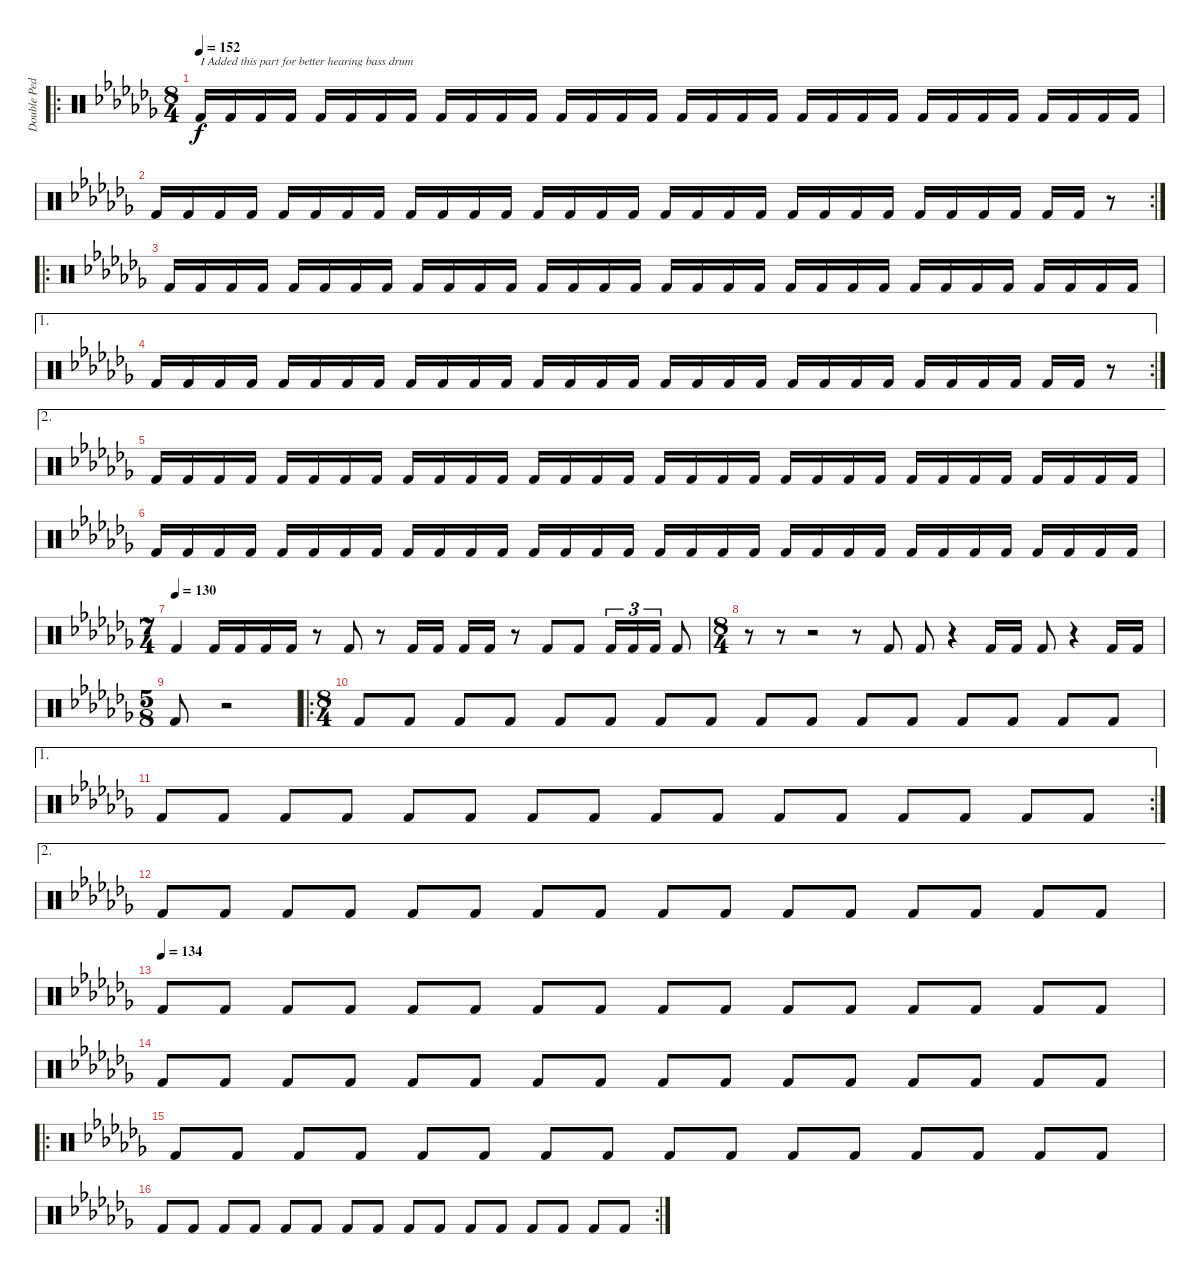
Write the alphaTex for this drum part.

\track ("Double Pedal" "Double Ped") {instrument percussion}
\staff
\articulation defaults
\ro
\ts (8 4)
\tempo 152
\clef neutral
\ks cb "Kick (hit) 2".16{txt "I Added this part for better hearing bass drum" dy f} "Kick (hit) 2".16 "Kick (hit) 2".16 "Kick (hit) 2".16 "Kick (hit) 2".16 "Kick (hit) 2".16 "Kick (hit) 2".16 "Kick (hit) 2".16 "Kick (hit) 2".16 "Kick (hit) 2".16 "Kick (hit) 2".16 "Kick (hit) 2".16 "Kick (hit) 2".16 "Kick (hit) 2".16 "Kick (hit) 2".16 "Kick (hit) 2".16 "Kick (hit) 2".16 "Kick (hit) 2".16 "Kick (hit) 2".16 "Kick (hit) 2".16 "Kick (hit) 2".16 "Kick (hit) 2".16 "Kick (hit) 2".16 "Kick (hit) 2".16 "Kick (hit) 2".16 "Kick (hit) 2".16 "Kick (hit) 2".16 "Kick (hit) 2".16 "Kick (hit) 2".16 "Kick (hit) 2".16 "Kick (hit) 2".16 "Kick (hit) 2".16
|
\rc 2 "Kick (hit) 2".16 "Kick (hit) 2".16 "Kick (hit) 2".16 "Kick (hit) 2".16 "Kick (hit) 2".16 "Kick (hit) 2".16 "Kick (hit) 2".16 "Kick (hit) 2".16 "Kick (hit) 2".16 "Kick (hit) 2".16 "Kick (hit) 2".16 "Kick (hit) 2".16 "Kick (hit) 2".16 "Kick (hit) 2".16 "Kick (hit) 2".16 "Kick (hit) 2".16 "Kick (hit) 2".16 "Kick (hit) 2".16 "Kick (hit) 2".16 "Kick (hit) 2".16 "Kick (hit) 2".16 "Kick (hit) 2".16 "Kick (hit) 2".16 "Kick (hit) 2".16 "Kick (hit) 2".16 "Kick (hit) 2".16 "Kick (hit) 2".16 "Kick (hit) 2".16 "Kick (hit) 2".16 "Kick (hit) 2".16
r.8 |
\ro "Kick (hit) 2".16 "Kick (hit) 2".16 "Kick (hit) 2".16 "Kick (hit) 2".16 "Kick (hit) 2".16 "Kick (hit) 2".16 "Kick (hit) 2".16 "Kick (hit) 2".16 "Kick (hit) 2".16 "Kick (hit) 2".16 "Kick (hit) 2".16 "Kick (hit) 2".16 "Kick (hit) 2".16 "Kick (hit) 2".16 "Kick (hit) 2".16 "Kick (hit) 2".16 "Kick (hit) 2".16 "Kick (hit) 2".16 "Kick (hit) 2".16 "Kick (hit) 2".16 "Kick (hit) 2".16 "Kick (hit) 2".16 "Kick (hit) 2".16 "Kick (hit) 2".16 "Kick (hit) 2".16 "Kick (hit) 2".16 "Kick (hit) 2".16 "Kick (hit) 2".16 "Kick (hit) 2".16 "Kick (hit) 2".16 "Kick (hit) 2".16 "Kick (hit) 2".16
|
\ae 1
\rc 2 "Kick (hit) 2".16 "Kick (hit) 2".16 "Kick (hit) 2".16 "Kick (hit) 2".16 "Kick (hit) 2".16 "Kick (hit) 2".16 "Kick (hit) 2".16 "Kick (hit) 2".16 "Kick (hit) 2".16 "Kick (hit) 2".16 "Kick (hit) 2".16 "Kick (hit) 2".16 "Kick (hit) 2".16 "Kick (hit) 2".16 "Kick (hit) 2".16 "Kick (hit) 2".16 "Kick (hit) 2".16 "Kick (hit) 2".16 "Kick (hit) 2".16 "Kick (hit) 2".16 "Kick (hit) 2".16 "Kick (hit) 2".16 "Kick (hit) 2".16 "Kick (hit) 2".16 "Kick (hit) 2".16 "Kick (hit) 2".16 "Kick (hit) 2".16 "Kick (hit) 2".16 "Kick (hit) 2".16 "Kick (hit) 2".16
r.8 |
\ae 2 "Kick (hit) 2".16 "Kick (hit) 2".16 "Kick (hit) 2".16 "Kick (hit) 2".16 "Kick (hit) 2".16 "Kick (hit) 2".16 "Kick (hit) 2".16 "Kick (hit) 2".16 "Kick (hit) 2".16 "Kick (hit) 2".16 "Kick (hit) 2".16 "Kick (hit) 2".16 "Kick (hit) 2".16 "Kick (hit) 2".16 "Kick (hit) 2".16 "Kick (hit) 2".16 "Kick (hit) 2".16 "Kick (hit) 2".16 "Kick (hit) 2".16 "Kick (hit) 2".16 "Kick (hit) 2".16 "Kick (hit) 2".16 "Kick (hit) 2".16 "Kick (hit) 2".16 "Kick (hit) 2".16 "Kick (hit) 2".16 "Kick (hit) 2".16 "Kick (hit) 2".16 "Kick (hit) 2".16 "Kick (hit) 2".16 "Kick (hit) 2".16 "Kick (hit) 2".16
|
"Kick (hit) 2".16 "Kick (hit) 2".16 "Kick (hit) 2".16 "Kick (hit) 2".16 "Kick (hit) 2".16 "Kick (hit) 2".16 "Kick (hit) 2".16 "Kick (hit) 2".16 "Kick (hit) 2".16 "Kick (hit) 2".16 "Kick (hit) 2".16 "Kick (hit) 2".16 "Kick (hit) 2".16 "Kick (hit) 2".16 "Kick (hit) 2".16 "Kick (hit) 2".16 "Kick (hit) 2".16 "Kick (hit) 2".16 "Kick (hit) 2".16 "Kick (hit) 2".16 "Kick (hit) 2".16 "Kick (hit) 2".16 "Kick (hit) 2".16 "Kick (hit) 2".16 "Kick (hit) 2".16 "Kick (hit) 2".16 "Kick (hit) 2".16 "Kick (hit) 2".16 "Kick (hit) 2".16 "Kick (hit) 2".16 "Kick (hit) 2".16 "Kick (hit) 2".16 |
\ts (7 4)
\tempo (130)
"Kick (hit) 2".4 "Kick (hit) 2".16 "Kick (hit) 2".16 "Kick (hit) 2".16 "Kick (hit) 2".16 r.8 "Kick (hit) 2".8 r.8 "Kick (hit) 2".16 "Kick (hit) 2".16 "Kick (hit) 2".16 "Kick (hit) 2".16 r.8 "Kick (hit) 2".8 "Kick (hit) 2".8 "Kick (hit) 2".16{tu (3 2)} "Kick (hit) 2".16{tu (3 2)} "Kick (hit) 2".16{tu (3 2)} "Kick (hit) 2".8 |
\ts (8 4)
r.8 r.8 r.2 r.8 "Kick (hit) 2".8 "Kick (hit) 2".8 r.4 "Kick (hit) 2".16 "Kick (hit) 2".16 "Kick (hit) 2".8 r.4 "Kick (hit) 2".16 "Kick (hit) 2".16 |
\ts (5 8)
"Kick (hit) 2".8 r.2 |
\ro
\ts (8 4)
"Kick (hit) 2".8 "Kick (hit) 2".8 "Kick (hit) 2".8 "Kick (hit) 2".8 "Kick (hit) 2".8 "Kick (hit) 2".8 "Kick (hit) 2".8 "Kick (hit) 2".8 "Kick (hit) 2".8 "Kick (hit) 2".8 "Kick (hit) 2".8 "Kick (hit) 2".8 "Kick (hit) 2".8 "Kick (hit) 2".8 "Kick (hit) 2".8 "Kick (hit) 2".8 |
\ae 1
\rc 2 "Kick (hit) 2".8 "Kick (hit) 2".8 "Kick (hit) 2".8 "Kick (hit) 2".8 "Kick (hit) 2".8 "Kick (hit) 2".8 "Kick (hit) 2".8 "Kick (hit) 2".8 "Kick (hit) 2".8 "Kick (hit) 2".8 "Kick (hit) 2".8 "Kick (hit) 2".8 "Kick (hit) 2".8 "Kick (hit) 2".8 "Kick (hit) 2".8 "Kick (hit) 2".8
|
\ae 2 "Kick (hit) 2".8 "Kick (hit) 2".8 "Kick (hit) 2".8 "Kick (hit) 2".8 "Kick (hit) 2".8 "Kick (hit) 2".8 "Kick (hit) 2".8 "Kick (hit) 2".8 "Kick (hit) 2".8 "Kick (hit) 2".8 "Kick (hit) 2".8 "Kick (hit) 2".8 "Kick (hit) 2".8 "Kick (hit) 2".8 "Kick (hit) 2".8 "Kick (hit) 2".8
|
\tempo (134)
"Kick (hit) 2".8 "Kick (hit) 2".8 "Kick (hit) 2".8 "Kick (hit) 2".8 "Kick (hit) 2".8 "Kick (hit) 2".8 "Kick (hit) 2".8 "Kick (hit) 2".8 "Kick (hit) 2".8 "Kick (hit) 2".8 "Kick (hit) 2".8 "Kick (hit) 2".8 "Kick (hit) 2".8 "Kick (hit) 2".8 "Kick (hit) 2".8 "Kick (hit) 2".8 |
"Kick (hit) 2".8 "Kick (hit) 2".8 "Kick (hit) 2".8 "Kick (hit) 2".8 "Kick (hit) 2".8 "Kick (hit) 2".8 "Kick (hit) 2".8 "Kick (hit) 2".8 "Kick (hit) 2".8 "Kick (hit) 2".8 "Kick (hit) 2".8 "Kick (hit) 2".8 "Kick (hit) 2".8 "Kick (hit) 2".8 "Kick (hit) 2".8 "Kick (hit) 2".8 |
\ro "Kick (hit) 2".8 "Kick (hit) 2".8 "Kick (hit) 2".8 "Kick (hit) 2".8 "Kick (hit) 2".8 "Kick (hit) 2".8 "Kick (hit) 2".8 "Kick (hit) 2".8 "Kick (hit) 2".8 "Kick (hit) 2".8 "Kick (hit) 2".8 "Kick (hit) 2".8 "Kick (hit) 2".8 "Kick (hit) 2".8 "Kick (hit) 2".8 "Kick (hit) 2".8
|
\rc 2 "Kick (hit) 2".8 "Kick (hit) 2".8 "Kick (hit) 2".8 "Kick (hit) 2".8 "Kick (hit) 2".8 "Kick (hit) 2".8 "Kick (hit) 2".8 "Kick (hit) 2".8 "Kick (hit) 2".8 "Kick (hit) 2".8 "Kick (hit) 2".8 "Kick (hit) 2".8 "Kick (hit) 2".8 "Kick (hit) 2".8 "Kick (hit) 2".8 "Kick (hit) 2".8
